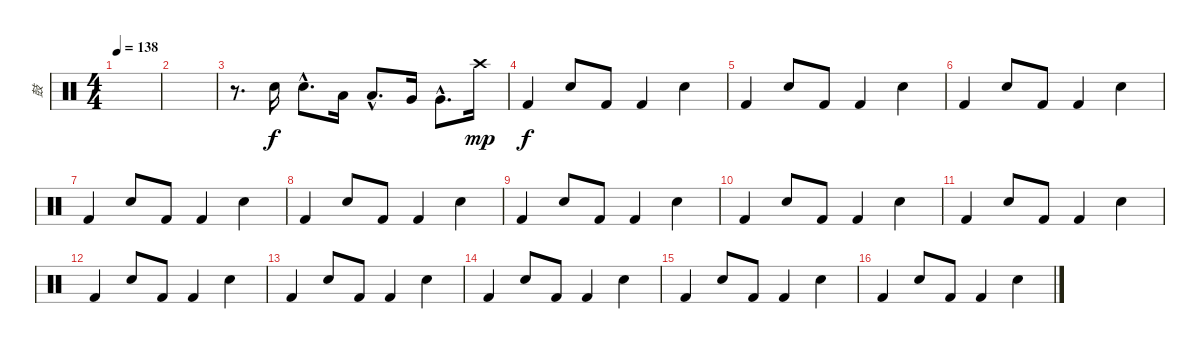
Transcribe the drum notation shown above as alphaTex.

\track ("鼓" "鼓") {instrument percussion}
\staff {score}
\articulation defaults
\ts (4 4)
\tempo 138
\clef neutral
\ks c
|
|
r.8{d} "Snare (hit) 2".16 "Snare (hit) 2"{hac}.8{d} "Low Tom (hit)".16 "Low Tom (hit)"{hac}.8{d} "Very Low Tom (hit)".16 "Very Low Tom (hit)"{hac}.8{d} "Crash high (hit)".16{dy mp} |
"Kick (hit) 2".4{dy f} "Snare (hit) 2".8 "Kick (hit) 2".8 "Kick (hit) 2".4 "Snare (hit) 2".4 |
"Kick (hit) 2".4 "Snare (hit) 2".8 "Kick (hit) 2".8 "Kick (hit) 2".4 "Snare (hit) 2".4 |
"Kick (hit) 2".4 "Snare (hit) 2".8 "Kick (hit) 2".8 "Kick (hit) 2".4 "Snare (hit) 2".4 |
"Kick (hit) 2".4 "Snare (hit) 2".8 "Kick (hit) 2".8 "Kick (hit) 2".4 "Snare (hit) 2".4 |
"Kick (hit) 2".4 "Snare (hit) 2".8 "Kick (hit) 2".8 "Kick (hit) 2".4 "Snare (hit) 2".4 |
"Kick (hit) 2".4 "Snare (hit) 2".8 "Kick (hit) 2".8 "Kick (hit) 2".4 "Snare (hit) 2".4 |
"Kick (hit) 2".4 "Snare (hit) 2".8 "Kick (hit) 2".8 "Kick (hit) 2".4 "Snare (hit) 2".4 |
"Kick (hit) 2".4 "Snare (hit) 2".8 "Kick (hit) 2".8 "Kick (hit) 2".4 "Snare (hit) 2".4 |
"Kick (hit) 2".4 "Snare (hit) 2".8 "Kick (hit) 2".8 "Kick (hit) 2".4 "Snare (hit) 2".4 |
"Kick (hit) 2".4 "Snare (hit) 2".8 "Kick (hit) 2".8 "Kick (hit) 2".4 "Snare (hit) 2".4 |
"Kick (hit) 2".4 "Snare (hit) 2".8 "Kick (hit) 2".8 "Kick (hit) 2".4 "Snare (hit) 2".4 |
"Kick (hit) 2".4 "Snare (hit) 2".8 "Kick (hit) 2".8 "Kick (hit) 2".4 "Snare (hit) 2".4 |
"Kick (hit) 2".4 "Snare (hit) 2".8 "Kick (hit) 2".8 "Kick (hit) 2".4 "Snare (hit) 2".4
